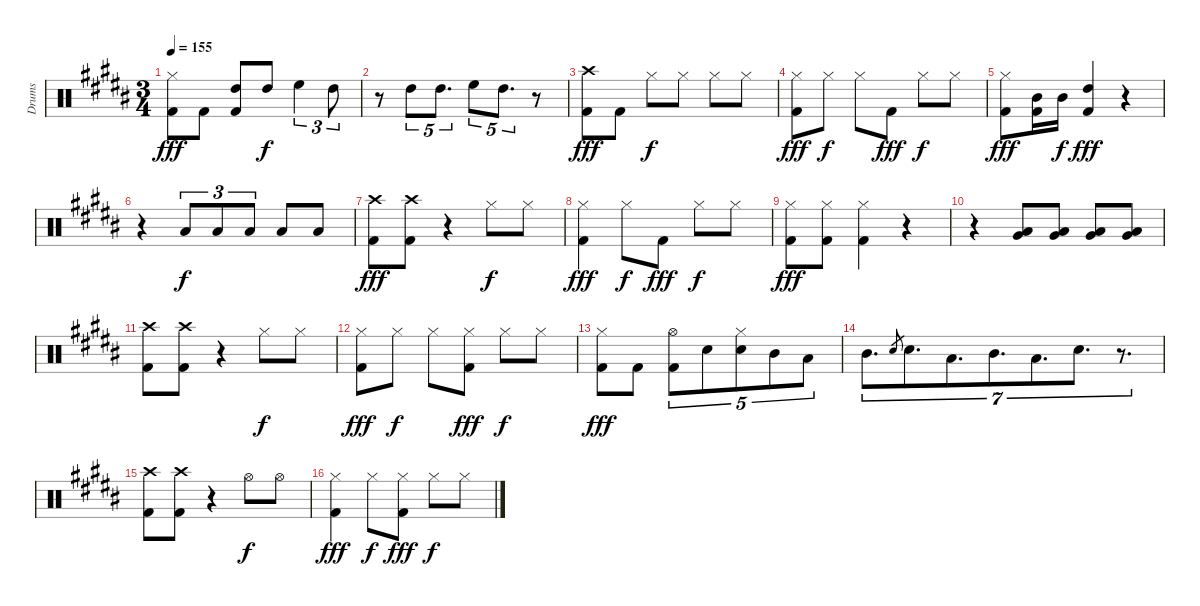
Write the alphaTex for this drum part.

\track ("Drums" "Drums") {instrument percussion}
\staff {score}
\articulation defaults
\ts (3 4)
\tempo 155
\clef neutral
\ks b
("Hi-Hat (closed)" "Kick (hit) 2").8{dy fff} "Kick (hit) 2".8 ("High Tom (hit)" "Kick (hit) 2").8 "High Tom (hit)".8{dy f} "High Floor Tom (hit)".4{tu (3 2)} "High Tom (hit)".8{tu (3 2)} |
r.8 "High Tom (hit)".8{tu (5 4)} "High Tom (hit)".8{d tu (5 4)} "High Floor Tom (hit)".8{tu (5 4)} "High Tom (hit)".8{d tu (5 4)} r.8 |
("Crash high (hit)" "Kick (hit) 2").8{dy fff} "Kick (hit) 2".8 "Hi-Hat (closed)".8{dy f} "Hi-Hat (closed)".8 "Hi-Hat (closed)".8 "Hi-Hat (closed)".8 |
("Hi-Hat (closed)" "Kick (hit) 2").8{dy fff} "Hi-Hat (closed)".8{dy f} "Hi-Hat (closed)".8 "Kick (hit) 2".8{dy fff} "Hi-Hat (closed)".8{dy f} "Hi-Hat (closed)".8 |
("Hi-Hat (closed)" "Kick (hit) 2").8{dy fff} ("Mid Tom (hit)" "Kick (hit) 2").16 "Mid Tom (hit)".16{dy f} ("High Tom (hit)" "Kick (hit) 2").4{dy fff} r.4 |
r.4 "Low Floor Tom (hit)".8{tu (3 2) dy f} "Low Floor Tom (hit)".8{tu (3 2)} "Low Floor Tom (hit)".8{tu (3 2)} "Low Floor Tom (hit)".8 "Low Floor Tom (hit)".8 |
("Crash high (hit)" "Kick (hit) 2").8{dy fff} ("Crash high (hit)" "Kick (hit) 2").8 r.4 "Hi-Hat (closed)".8{dy f} "Hi-Hat (closed)".8 |
("Hi-Hat (closed)" "Kick (hit) 2").4{dy fff} "Hi-Hat (closed)".8{dy f} "Kick (hit) 2".8{dy fff} "Hi-Hat (closed)".8{dy f} "Hi-Hat (closed)".8 |
("Hi-Hat (closed)" "Kick (hit) 2").8{dy fff} ("Hi-Hat (closed)" "Kick (hit) 2").8 ("Hi-Hat (closed)" "Kick (hit) 2").4 r.4 |
r.4 ("Very Low Tom (hit)" "Low Floor Tom (hit)").8 ("Very Low Tom (hit)" "Low Floor Tom (hit)").8 ("Very Low Tom (hit)" "Low Floor Tom (hit)").8 ("Very Low Tom (hit)" "Low Floor Tom (hit)").8 |
("Crash high (hit)" "Kick (hit) 2").8 ("Crash high (hit)" "Kick (hit) 2").8 r.4 "Hi-Hat (closed)".8{dy f} "Hi-Hat (closed)".8 |
("Hi-Hat (closed)" "Kick (hit) 2").8{dy fff} "Hi-Hat (closed)".8{dy f} "Hi-Hat (closed)".8 ("Hi-Hat (closed)" "Kick (hit) 2").8{dy fff} "Hi-Hat (closed)".8{dy f} "Hi-Hat (closed)".8 |
("Hi-Hat (closed)" "Kick (hit) 2").8{dy fff} "Kick (hit) 2".8 ("Hi-Hat (open)" "Kick (hit) 2").8{tu (5 4)} "Snare (hit) 2".8{tu (5 4)} ("Hi-Hat (closed)" "Snare (hit) 2").8{tu (5 4) beam merge} "Mid Tom (hit)".8{tu (5 4)} "Low Tom (hit)".8{tu (5 4)} |
"Mid Tom (hit)".8{d tu (7 4)} "Snare (hit) 2".8{gr} "Snare (hit) 2".8{d tu (7 4)} "Low Tom (hit)".8{d tu (7 4)} "Mid Tom (hit)".8{d tu (7 4)} "Low Tom (hit)".8{d tu (7 4)} "Snare (hit) 2".8{d tu (7 4)} r.8{d tu (7 4)} |
("Crash high (hit)" "Kick (hit) 2").8 ("Crash high (hit)" "Kick (hit) 2").8 r.4 "Hi-Hat (open)".8{dy f} "Hi-Hat (open)".8 |
("Hi-Hat (closed)" "Kick (hit) 2").4{dy fff} "Hi-Hat (closed)".8{dy f} ("Hi-Hat (closed)" "Kick (hit) 2").8{dy fff} "Hi-Hat (closed)".8{dy f} "Hi-Hat (closed)".8
